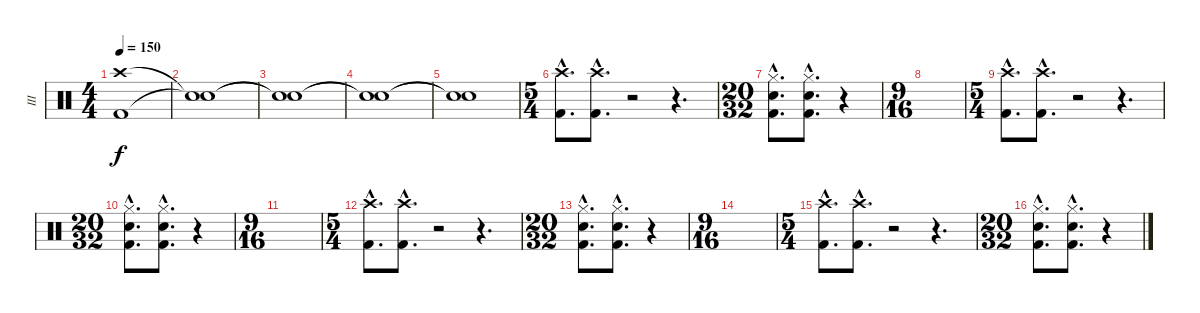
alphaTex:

\track ("III" "III") {instrument percussion}
\staff {score}
\articulation defaults
\ts (4 4)
\tempo 150
\clef neutral
\ks c
("Crash high (hit)" "Kick (hit) 2").1{dy f} |
("Snare (hit)"{t} "Snare (hit)"{t}).1 |
("Snare (hit)"{t} "Snare (hit)"{t}).1 |
("Snare (hit)"{t} "Snare (hit)"{t}).1 |
("Snare (hit)"{t} "Snare (hit)"{t}).1 |
\ts (5 4)
("Crash high (hit)"{hac} "Kick (hit) 2"{hac}).8{d} ("Crash high (hit)"{hac} "Kick (hit) 2"{hac}).8{d} r.2 r.4{d} |
\ts (20 32)
("Hi-Hat (closed)"{hac} "Snare (hit) 2"{hac} "Kick (hit) 2"{hac}).8{d} ("Hi-Hat (closed)"{hac} "Snare (hit) 2"{hac} "Kick (hit) 2"{hac}).8{d} r.4 |
\ts (9 16)
|
\ts (5 4)
("Crash high (hit)"{hac} "Kick (hit) 2"{hac}).8{d} ("Crash high (hit)"{hac} "Kick (hit) 2"{hac}).8{d} r.2 r.4{d} |
\ts (20 32)
("Hi-Hat (closed)"{hac} "Snare (hit) 2"{hac} "Kick (hit) 2"{hac}).8{d} ("Hi-Hat (closed)"{hac} "Snare (hit) 2"{hac} "Kick (hit) 2"{hac}).8{d} r.4 |
\ts (9 16)
|
\ts (5 4)
("Crash high (hit)"{hac} "Kick (hit) 2"{hac}).8{d} ("Crash high (hit)"{hac} "Kick (hit) 2"{hac}).8{d} r.2 r.4{d} |
\ts (20 32)
("Hi-Hat (closed)"{hac} "Snare (hit) 2"{hac} "Kick (hit) 2"{hac}).8{d} ("Hi-Hat (closed)"{hac} "Snare (hit) 2"{hac} "Kick (hit) 2"{hac}).8{d} r.4 |
\ts (9 16)
|
\ts (5 4)
("Crash high (hit)"{hac} "Kick (hit) 2"{hac}).8{d} ("Crash high (hit)"{hac} "Kick (hit) 2"{hac}).8{d} r.2 r.4{d} |
\ts (20 32)
("Hi-Hat (closed)"{hac} "Snare (hit) 2"{hac} "Kick (hit) 2"{hac}).8{d} ("Hi-Hat (closed)"{hac} "Snare (hit) 2"{hac} "Kick (hit) 2"{hac}).8{d} r.4
